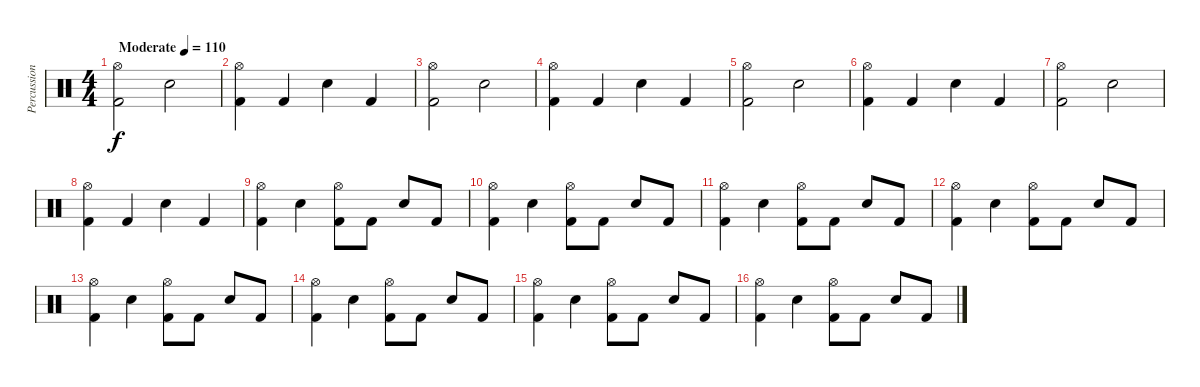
\track ("Percussions" "Percussion") {instrument percussion}
\staff {score}
\articulation defaults
\ts (4 4)
\tempo (110 "Moderate")
\clef neutral
\ks c
("Hi-Hat (open)" "Kick (hit) 2").2{dy f} "Snare (hit) 2".2 |
("Hi-Hat (open)" "Kick (hit) 2").4 "Kick (hit) 2".4 "Snare (hit) 2".4 "Kick (hit) 2".4 |
("Hi-Hat (open)" "Kick (hit) 2").2 "Snare (hit) 2".2 |
("Hi-Hat (open)" "Kick (hit) 2").4 "Kick (hit) 2".4 "Snare (hit) 2".4 "Kick (hit) 2".4 |
("Hi-Hat (open)" "Kick (hit) 2").2 "Snare (hit) 2".2 |
("Hi-Hat (open)" "Kick (hit) 2").4 "Kick (hit) 2".4 "Snare (hit) 2".4 "Kick (hit) 2".4 |
("Hi-Hat (open)" "Kick (hit) 2").2 "Snare (hit) 2".2 |
("Hi-Hat (open)" "Kick (hit) 2").4 "Kick (hit) 2".4 "Snare (hit) 2".4 "Kick (hit) 2".4 |
("Hi-Hat (open)" "Kick (hit) 2").4 "Snare (hit) 2".4 ("Hi-Hat (open)" "Kick (hit) 2").8 "Kick (hit) 2".8 "Snare (hit) 2".8 "Kick (hit) 2".8 |
("Hi-Hat (open)" "Kick (hit) 2").4 "Snare (hit) 2".4 ("Hi-Hat (open)" "Kick (hit) 2").8 "Kick (hit) 2".8 "Snare (hit) 2".8 "Kick (hit) 2".8 |
("Hi-Hat (open)" "Kick (hit) 2").4 "Snare (hit) 2".4 ("Hi-Hat (open)" "Kick (hit) 2").8 "Kick (hit) 2".8 "Snare (hit) 2".8 "Kick (hit) 2".8 |
("Hi-Hat (open)" "Kick (hit) 2").4 "Snare (hit) 2".4 ("Hi-Hat (open)" "Kick (hit) 2").8 "Kick (hit) 2".8 "Snare (hit) 2".8 "Kick (hit) 2".8 |
("Hi-Hat (open)" "Kick (hit) 2").4 "Snare (hit) 2".4 ("Hi-Hat (open)" "Kick (hit) 2").8 "Kick (hit) 2".8 "Snare (hit) 2".8 "Kick (hit) 2".8 |
("Hi-Hat (open)" "Kick (hit) 2").4 "Snare (hit) 2".4 ("Hi-Hat (open)" "Kick (hit) 2").8 "Kick (hit) 2".8 "Snare (hit) 2".8 "Kick (hit) 2".8 |
("Hi-Hat (open)" "Kick (hit) 2").4 "Snare (hit) 2".4 ("Hi-Hat (open)" "Kick (hit) 2").8 "Kick (hit) 2".8 "Snare (hit) 2".8 "Kick (hit) 2".8 |
("Hi-Hat (open)" "Kick (hit) 2").4 "Snare (hit) 2".4 ("Hi-Hat (open)" "Kick (hit) 2").8 "Kick (hit) 2".8 "Snare (hit) 2".8 "Kick (hit) 2".8
